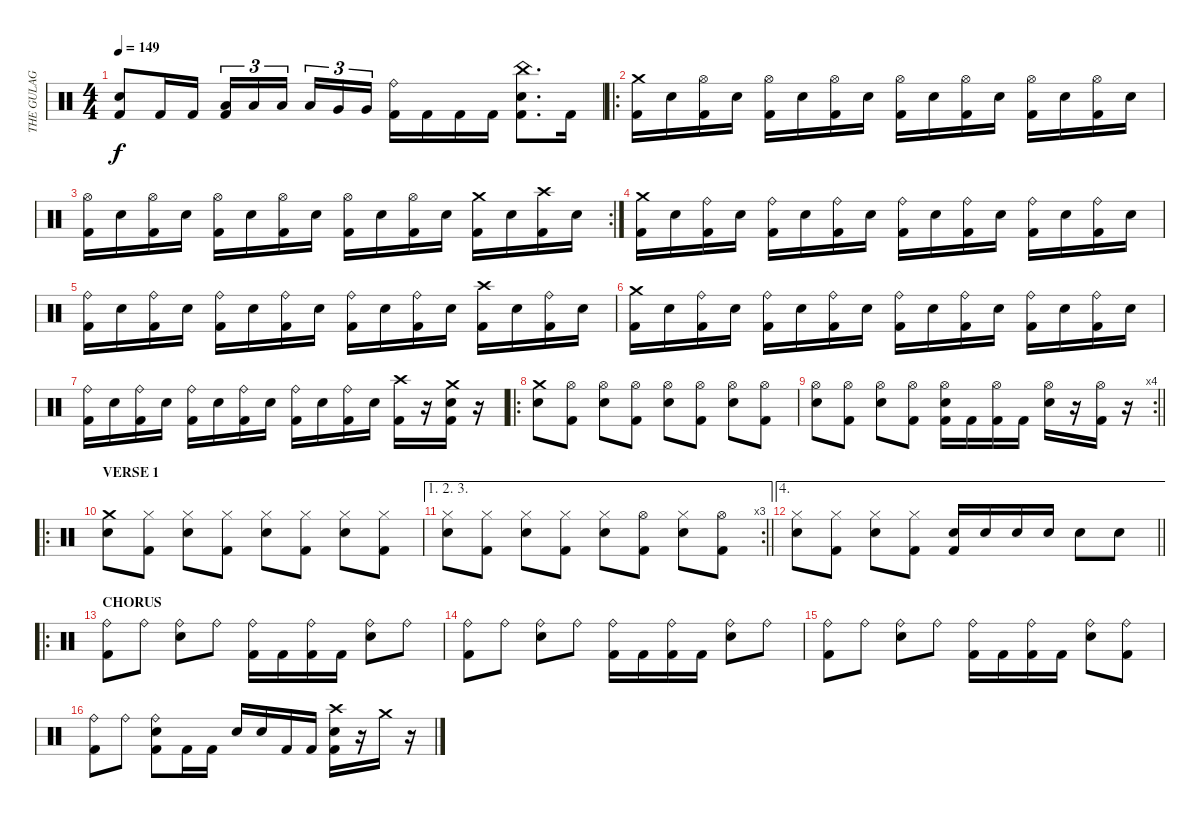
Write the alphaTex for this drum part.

\track ("THE GULAG" "THE GULAG") {instrument percussion}
\staff {score}
\articulation defaults
\ts (4 4)
\tempo 149
\clef neutral
\ks c
("Snare (hit) 2" "Kick (hit) 2").8{dy f} "Kick (hit) 2".16 "Kick (hit) 2".16 ("Low Tom (hit)" "Kick (hit) 2").16{tu (3 2)} "Low Tom (hit)".16{tu (3 2)} "Low Tom (hit)".16{tu (3 2) beam splitsecondary} "Low Tom (hit)".16{tu (3 2)} "Very Low Tom (hit)".16{tu (3 2)} "Very Low Tom (hit)".16{tu (3 2)} ("Ride (bell)" "Kick (hit) 2").16 "Kick (hit) 2".16 "Kick (hit) 2".16 "Kick (hit) 2".16 ("China (hit)" "Snare (hit) 2" "Kick (hit) 2").8{d} "Kick (hit) 2".16 |
\ro
("Crash medium (hit)" "Kick (hit) 2").16 "Snare (hit) 2".16 ("Hi-Hat (open)" "Kick (hit) 2").16 "Snare (hit) 2".16 ("Hi-Hat (open)" "Kick (hit) 2").16 "Snare (hit) 2".16 ("Hi-Hat (open)" "Kick (hit) 2").16 "Snare (hit) 2".16 ("Hi-Hat (open)" "Kick (hit) 2").16 "Snare (hit) 2".16 ("Hi-Hat (open)" "Kick (hit) 2").16 "Snare (hit) 2".16 ("Hi-Hat (open)" "Kick (hit) 2").16 "Snare (hit) 2".16 ("Hi-Hat (open)" "Kick (hit) 2").16 "Snare (hit) 2".16 |
\rc 2
("Hi-Hat (open)" "Kick (hit) 2").16 "Snare (hit) 2".16 ("Hi-Hat (open)" "Kick (hit) 2").16 "Snare (hit) 2".16 ("Hi-Hat (open)" "Kick (hit) 2").16 "Snare (hit) 2".16 ("Hi-Hat (open)" "Kick (hit) 2").16 "Snare (hit) 2".16 ("Hi-Hat (open)" "Kick (hit) 2").16 "Snare (hit) 2".16 ("Hi-Hat (open)" "Kick (hit) 2").16 "Snare (hit) 2".16 ("Crash medium (hit)" "Kick (hit) 2").16 "Snare (hit) 2".16 ("Crash high (hit)" "Kick (hit) 2").16 "Snare (hit) 2".16 |
("Crash medium (hit)" "Kick (hit) 2").16 "Snare (hit) 2".16 ("Ride (bell)" "Kick (hit) 2").16 "Snare (hit) 2".16 ("Ride (bell)" "Kick (hit) 2").16 "Snare (hit) 2".16 ("Ride (bell)" "Kick (hit) 2").16 "Snare (hit) 2".16 ("Ride (bell)" "Kick (hit) 2").16 "Snare (hit) 2".16 ("Ride (bell)" "Kick (hit) 2").16 "Snare (hit) 2".16 ("Ride (bell)" "Kick (hit) 2").16 "Snare (hit) 2".16 ("Ride (bell)" "Kick (hit) 2").16 "Snare (hit) 2".16 |
("Ride (bell)" "Kick (hit) 2").16 "Snare (hit) 2".16 ("Ride (bell)" "Kick (hit) 2").16 "Snare (hit) 2".16 ("Ride (bell)" "Kick (hit) 2").16 "Snare (hit) 2".16 ("Ride (bell)" "Kick (hit) 2").16 "Snare (hit) 2".16 ("Ride (bell)" "Kick (hit) 2").16 "Snare (hit) 2".16 ("Ride (bell)" "Kick (hit) 2").16 "Snare (hit) 2".16 ("Crash high (hit)" "Kick (hit) 2").16 "Snare (hit) 2".16 ("Ride (bell)" "Kick (hit) 2").16 "Snare (hit) 2".16 |
("Crash medium (hit)" "Kick (hit) 2").16 "Snare (hit) 2".16 ("Ride (bell)" "Kick (hit) 2").16 "Snare (hit) 2".16 ("Ride (bell)" "Kick (hit) 2").16 "Snare (hit) 2".16 ("Ride (bell)" "Kick (hit) 2").16 "Snare (hit) 2".16 ("Ride (bell)" "Kick (hit) 2").16 "Snare (hit) 2".16 ("Ride (bell)" "Kick (hit) 2").16 "Snare (hit) 2".16 ("Ride (bell)" "Kick (hit) 2").16 "Snare (hit) 2".16 ("Ride (bell)" "Kick (hit) 2").16 "Snare (hit) 2".16 |
("Ride (bell)" "Kick (hit) 2").16 "Snare (hit) 2".16 ("Ride (bell)" "Kick (hit) 2").16 "Snare (hit) 2".16 ("Ride (bell)" "Kick (hit) 2").16 "Snare (hit) 2".16 ("Ride (bell)" "Kick (hit) 2").16 "Snare (hit) 2".16 ("Ride (bell)" "Kick (hit) 2").16 "Snare (hit) 2".16 ("Ride (bell)" "Kick (hit) 2").16 "Snare (hit) 2".16 ("Crash high (hit)" "Kick (hit) 2").16 r.16 ("Crash medium (hit)" "Snare (hit) 2" "Kick (hit) 2").16 r.16 |
\ro
("Crash medium (hit)" "Snare (hit) 2").8 ("Hi-Hat (open)" "Kick (hit) 2").8 ("Hi-Hat (open)" "Snare (hit) 2").8 ("Hi-Hat (open)" "Kick (hit) 2").8 ("Hi-Hat (open)" "Snare (hit) 2").8 ("Hi-Hat (open)" "Kick (hit) 2").8 ("Hi-Hat (open)" "Snare (hit) 2").8 ("Hi-Hat (open)" "Kick (hit) 2").8 |
\rc 4
\barLineRight lightlight
("Hi-Hat (open)" "Snare (hit) 2").8 ("Hi-Hat (open)" "Kick (hit) 2").8 ("Hi-Hat (open)" "Snare (hit) 2").8 ("Hi-Hat (open)" "Kick (hit) 2").8 ("Hi-Hat (open)" "Snare (hit) 2" "Kick (hit) 2").16 "Kick (hit) 2".16 ("Hi-Hat (open)" "Kick (hit) 2").16 "Kick (hit) 2".16 ("Hi-Hat (open)" "Snare (hit) 2").16 r.16 ("Hi-Hat (open)" "Kick (hit) 2").16 r.16 |
\ro
\section ("" "VERSE 1")
("Crash medium (hit)" "Snare (hit) 2").8 ("Hi-Hat (closed)" "Kick (hit) 2").8 ("Hi-Hat (closed)" "Snare (hit) 2").8 ("Hi-Hat (closed)" "Kick (hit) 2").8 ("Hi-Hat (closed)" "Snare (hit) 2").8 ("Hi-Hat (closed)" "Kick (hit) 2").8 ("Hi-Hat (closed)" "Snare (hit) 2").8 ("Hi-Hat (closed)" "Kick (hit) 2").8 |
\ae (1 2 3)
\rc 3
\barLineRight lightlight
("Hi-Hat (closed)" "Snare (hit) 2").8 ("Hi-Hat (closed)" "Kick (hit) 2").8 ("Hi-Hat (closed)" "Snare (hit) 2").8 ("Hi-Hat (closed)" "Kick (hit) 2").8 ("Hi-Hat (closed)" "Snare (hit) 2").8 ("Hi-Hat (open)" "Kick (hit) 2").8 ("Hi-Hat (closed)" "Snare (hit) 2").8 ("Hi-Hat (open)" "Kick (hit) 2").8 |
\ae 4
\barLineRight lightlight
("Hi-Hat (closed)" "Snare (hit) 2").8 ("Hi-Hat (closed)" "Kick (hit) 2").8 ("Hi-Hat (closed)" "Snare (hit) 2").8 ("Hi-Hat (closed)" "Kick (hit) 2").8 ("Snare (hit) 2" "Kick (hit) 2").16 "Snare (hit) 2".16 "Snare (hit) 2".16 "Snare (hit) 2".16 "Snare (hit) 2".8 "Snare (hit) 2".8 |
\ro
\section ("" "CHORUS")
("Ride (bell)" "Kick (hit) 2").8 "Ride (bell)".8 ("Ride (bell)" "Snare (hit) 2").8 "Ride (bell)".8 ("Ride (bell)" "Kick (hit) 2").16 "Kick (hit) 2".16 ("Ride (bell)" "Kick (hit) 2").16 "Kick (hit) 2".16 ("Ride (bell)" "Snare (hit) 2").8 "Ride (bell)".8 |
("Ride (bell)" "Kick (hit) 2").8 "Ride (bell)".8 ("Ride (bell)" "Snare (hit) 2").8 "Ride (bell)".8 ("Ride (bell)" "Kick (hit) 2").16 "Kick (hit) 2".16 ("Ride (bell)" "Kick (hit) 2").16 "Kick (hit) 2".16 ("Ride (bell)" "Snare (hit) 2").8 "Ride (bell)".8 |
("Ride (bell)" "Kick (hit) 2").8 "Ride (bell)".8 ("Ride (bell)" "Snare (hit) 2").8 "Ride (bell)".8 ("Ride (bell)" "Kick (hit) 2").16 "Kick (hit) 2".16 ("Ride (bell)" "Kick (hit) 2").16 "Kick (hit) 2".16 ("Ride (bell)" "Snare (hit) 2").8 ("Ride (bell)" "Kick (hit) 2").8 |
("Ride (bell)" "Kick (hit) 2").8 "Ride (bell)".8 ("Ride (bell)" "Snare (hit) 2" "Kick (hit) 2").8 "Kick (hit) 2".16 "Kick (hit) 2".16 "Snare (hit) 2".16 "Snare (hit) 2".16 "Kick (hit) 2".16 "Kick (hit) 2".16 ("Crash high (hit)" "Snare (hit) 2" "Kick (hit) 2").16 r.16 "Crash medium (hit)".16 r.16
